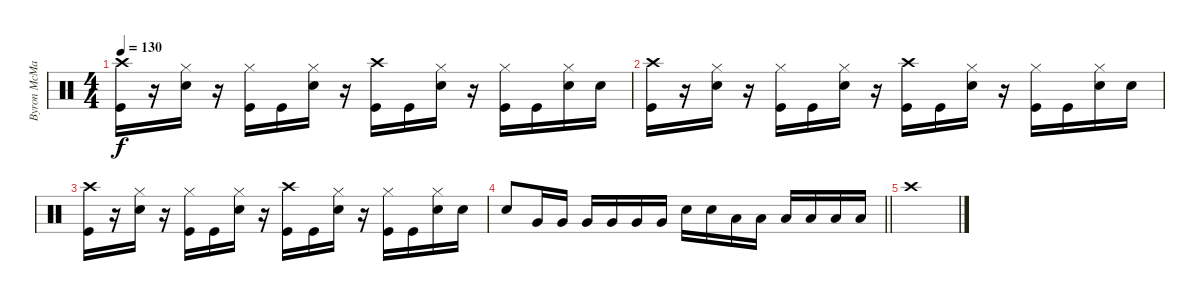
\track ("Byron McMackin" "Byron McMa") {instrument percussion}
\staff {score}
\articulation defaults
\ts (4 4)
\tempo 130
\clef neutral
\ks c
("Crash high (hit)" "Kick (hit)").16{dy f} r.16 ("Hi-Hat (closed)" "Electric Snare (hit)").16 r.16 ("Hi-Hat (closed)" "Kick (hit)").16 "Kick (hit)".16 ("Hi-Hat (closed)" "Electric Snare (hit)").16 r.16 ("Crash high (hit)" "Kick (hit)").16 "Kick (hit)".16 ("Hi-Hat (closed)" "Electric Snare (hit)").16 r.16 ("Hi-Hat (closed)" "Kick (hit)").16 "Kick (hit)".16 ("Hi-Hat (closed)" "Electric Snare (hit)").16 "Electric Snare (hit)".16 |
("Crash high (hit)" "Kick (hit)").16 r.16 ("Hi-Hat (closed)" "Electric Snare (hit)").16 r.16 ("Hi-Hat (closed)" "Kick (hit)").16 "Kick (hit)".16 ("Hi-Hat (closed)" "Electric Snare (hit)").16 r.16 ("Crash high (hit)" "Kick (hit)").16 "Kick (hit)".16 ("Hi-Hat (closed)" "Electric Snare (hit)").16 r.16 ("Hi-Hat (closed)" "Kick (hit)").16 "Kick (hit)".16 ("Hi-Hat (closed)" "Electric Snare (hit)").16 "Electric Snare (hit)".16 |
("Crash high (hit)" "Kick (hit)").16 r.16 ("Hi-Hat (closed)" "Electric Snare (hit)").16 r.16 ("Hi-Hat (closed)" "Kick (hit)").16 "Kick (hit)".16 ("Hi-Hat (closed)" "Electric Snare (hit)").16 r.16 ("Crash high (hit)" "Kick (hit)").16 "Kick (hit)".16 ("Hi-Hat (closed)" "Electric Snare (hit)").16 r.16 ("Hi-Hat (closed)" "Kick (hit)").16 "Kick (hit)".16 ("Hi-Hat (closed)" "Electric Snare (hit)").16 "Electric Snare (hit)".16 |
\barLineRight lightlight "Electric Snare (hit)".8 "Very Low Tom (hit)".16 "Very Low Tom (hit)".16 "Very Low Tom (hit)".16 "Very Low Tom (hit)".16 "Very Low Tom (hit)".16 "Very Low Tom (hit)".16 "Electric Snare (hit)".16 "Electric Snare (hit)".16 "Low Tom (hit)".16 "Low Tom (hit)".16 "Low Tom (hit)".16 "Low Tom (hit)".16 "Low Tom (hit)".16 "Low Tom (hit)".16
|
"Crash high (hit)".1
